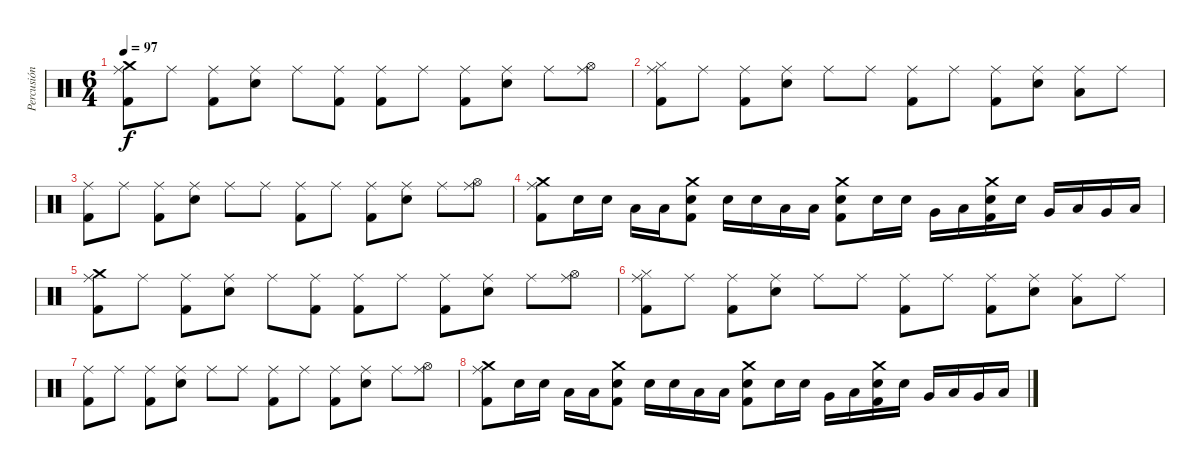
\track ("Percusión" "Percusión") {instrument percussion}
\staff {score}
\articulation defaults
\ts (6 4)
\tempo 97
\clef neutral
\ks c
("Crash medium (hit)" "Ride (middle)" "Kick (hit) 2").8{dy f} "Ride (middle)".8 ("Ride (middle)" "Kick (hit) 2").8 ("Ride (middle)" "Electric Snare (hit)").8 "Ride (middle)".8 ("Ride (middle)" "Kick (hit) 2").8 ("Ride (middle)" "Kick (hit) 2").8 "Ride (middle)".8 ("Ride (middle)" "Kick (hit) 2").8 ("Ride (middle)" "Electric Snare (hit)").8 "Ride (middle)".8 ("Ride (middle)" "Hi-Hat (open)").8 |
("Ride (middle)" "Kick (hit) 2" "Hi-Hat (closed)").8 "Ride (middle)".8 ("Ride (middle)" "Kick (hit) 2").8 ("Ride (middle)" "Electric Snare (hit)").8 "Ride (middle)".8 "Ride (middle)".8 ("Ride (middle)" "Kick (hit) 2").8 "Ride (middle)".8 ("Ride (middle)" "Kick (hit) 2").8 ("Ride (middle)" "Electric Snare (hit)").8 ("Ride (middle)" "Low Floor Tom (hit)").8 "Ride (middle)".8 |
("Ride (middle)" "Kick (hit) 2").8 "Ride (middle)".8 ("Ride (middle)" "Kick (hit) 2").8 ("Ride (middle)" "Electric Snare (hit)").8 "Ride (middle)".8 "Ride (middle)".8 ("Ride (middle)" "Kick (hit) 2").8 "Ride (middle)".8 ("Ride (middle)" "Kick (hit) 2").8 ("Ride (middle)" "Electric Snare (hit)").8 "Ride (middle)".8 ("Ride (middle)" "Hi-Hat (open)").8 |
("Ride (middle)" "Crash medium (hit)" "Kick (hit) 2").8 "Electric Snare (hit)".16 "Electric Snare (hit)".16 "Low Tom (hit)".16 "Low Floor Tom (hit)".16 ("Kick (hit) 2" "Electric Snare (hit)" "Crash medium (hit)").8 "Electric Snare (hit)".16 "Electric Snare (hit)".16 "Low Tom (hit)".16 "Low Floor Tom (hit)".16 ("Kick (hit) 2" "Electric Snare (hit)" "Crash medium (hit)").8 "Electric Snare (hit)".16 "Electric Snare (hit)".16 "Very Low Tom (hit)".16 "Low Floor Tom (hit)".16 ("Kick (hit) 2" "Crash medium (hit)" "Electric Snare (hit)").16 "Electric Snare (hit)".16 "Very Low Tom (hit)".16 "Low Tom (hit)".16 "Very Low Tom (hit)".16 "Low Floor Tom (hit)".16 |
("Crash medium (hit)" "Ride (middle)" "Kick (hit) 2").8{volume 0} "Ride (middle)".8 ("Ride (middle)" "Kick (hit) 2").8 ("Ride (middle)" "Electric Snare (hit)").8 "Ride (middle)".8 ("Ride (middle)" "Kick (hit) 2").8 ("Ride (middle)" "Kick (hit) 2").8 "Ride (middle)".8 ("Ride (middle)" "Kick (hit) 2").8 ("Ride (middle)" "Electric Snare (hit)").8 "Ride (middle)".8 ("Ride (middle)" "Hi-Hat (open)").8 |
("Ride (middle)" "Kick (hit) 2" "Hi-Hat (closed)").8 "Ride (middle)".8 ("Ride (middle)" "Kick (hit) 2").8 ("Ride (middle)" "Electric Snare (hit)").8 "Ride (middle)".8 "Ride (middle)".8 ("Ride (middle)" "Kick (hit) 2").8 "Ride (middle)".8 ("Ride (middle)" "Kick (hit) 2").8 ("Ride (middle)" "Electric Snare (hit)").8 ("Ride (middle)" "Low Floor Tom (hit)").8 "Ride (middle)".8 |
("Ride (middle)" "Kick (hit) 2").8 "Ride (middle)".8 ("Ride (middle)" "Kick (hit) 2").8 ("Ride (middle)" "Electric Snare (hit)").8 "Ride (middle)".8 "Ride (middle)".8 ("Ride (middle)" "Kick (hit) 2").8 "Ride (middle)".8 ("Ride (middle)" "Kick (hit) 2").8 ("Ride (middle)" "Electric Snare (hit)").8 "Ride (middle)".8 ("Ride (middle)" "Hi-Hat (open)").8 |
("Ride (middle)" "Crash medium (hit)" "Kick (hit) 2").8 "Electric Snare (hit)".16 "Electric Snare (hit)".16 "Low Tom (hit)".16 "Low Floor Tom (hit)".16 ("Kick (hit) 2" "Electric Snare (hit)" "Crash medium (hit)").8 "Electric Snare (hit)".16 "Electric Snare (hit)".16 "Low Tom (hit)".16 "Low Floor Tom (hit)".16 ("Kick (hit) 2" "Electric Snare (hit)" "Crash medium (hit)").8 "Electric Snare (hit)".16 "Electric Snare (hit)".16 "Very Low Tom (hit)".16 "Low Floor Tom (hit)".16 ("Kick (hit) 2" "Crash medium (hit)" "Electric Snare (hit)").16 "Electric Snare (hit)".16 "Very Low Tom (hit)".16 "Low Tom (hit)".16 "Very Low Tom (hit)".16 "Low Floor Tom (hit)".16
